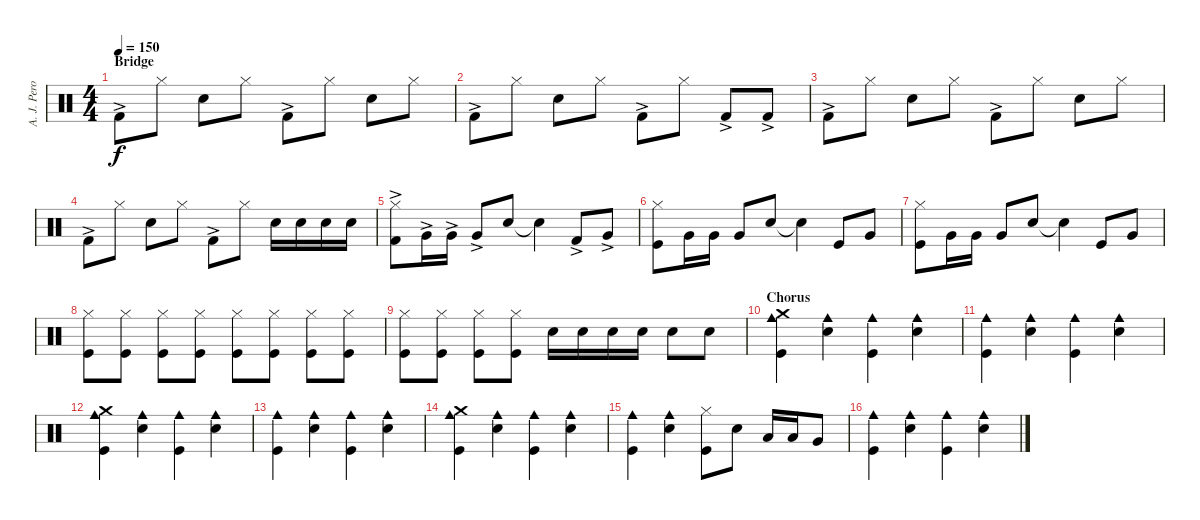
\track ("A. J. Pero - Drums" "A. J. Pero") {instrument percussion}
\staff {score}
\articulation defaults
\ts (4 4)
\section ("" "Bridge")
\tempo 150
\clef neutral
\ks c "Kick (hit) 2"{ac}.8{dy f} "Hi-Hat (closed)".8 "Electric Snare (hit)".8 "Hi-Hat (closed)".8 "Kick (hit) 2"{ac}.8 "Hi-Hat (closed)".8 "Electric Snare (hit)".8 "Hi-Hat (closed)".8
|
"Kick (hit) 2"{ac}.8 "Hi-Hat (closed)".8 "Electric Snare (hit)".8 "Hi-Hat (closed)".8 "Kick (hit) 2"{ac}.8 "Hi-Hat (closed)".8 "Kick (hit) 2"{ac}.8 "Kick (hit) 2"{ac}.8 |
"Kick (hit) 2"{ac}.8 "Hi-Hat (closed)".8 "Electric Snare (hit)".8 "Hi-Hat (closed)".8 "Kick (hit) 2"{ac}.8 "Hi-Hat (closed)".8 "Electric Snare (hit)".8 "Hi-Hat (closed)".8 |
"Kick (hit) 2"{ac}.8 "Hi-Hat (closed)".8 "Electric Snare (hit)".8 "Hi-Hat (closed)".8 "Kick (hit) 2"{ac}.8 "Hi-Hat (closed)".8 "Electric Snare (hit)".16 "Electric Snare (hit)".16 "Electric Snare (hit)".16 "Electric Snare (hit)".16 |
("Hi-Hat (closed)" "Kick (hit) 2"{ac}).8 "Very Low Tom (hit)"{ac}.16 "Very Low Tom (hit)"{ac}.16 "Very Low Tom (hit)"{ac}.8 "Electric Snare (hit)".8 "Electric Snare (hit)"{t}.4 "Kick (hit) 2"{ac}.8 "Very Low Tom (hit)"{ac}.8 |
("Hi-Hat (closed)" "Kick (hit)").8 "Very Low Tom (hit)".16 "Very Low Tom (hit)".16 "Very Low Tom (hit)".8 "Snare (hit) 2".8 "Snare (hit) 2"{t}.4 "Kick (hit)".8 "Very Low Tom (hit)".8 |
("Hi-Hat (closed)" "Kick (hit)").8 "Very Low Tom (hit)".16 "Very Low Tom (hit)".16 "Very Low Tom (hit)".8 "Snare (hit) 2".8 "Snare (hit) 2"{t}.4 "Kick (hit)".8 "Very Low Tom (hit)".8 |
("Hi-Hat (closed)" "Kick (hit)").8 ("Hi-Hat (closed)" "Kick (hit)").8 ("Hi-Hat (closed)" "Kick (hit)").8 ("Hi-Hat (closed)" "Kick (hit)").8 ("Hi-Hat (closed)" "Kick (hit)").8 ("Hi-Hat (closed)" "Kick (hit)").8 ("Hi-Hat (closed)" "Kick (hit)").8 ("Hi-Hat (closed)" "Kick (hit)").8 |
("Hi-Hat (closed)" "Kick (hit)").8 ("Hi-Hat (closed)" "Kick (hit)").8 ("Hi-Hat (closed)" "Kick (hit)").8 ("Hi-Hat (closed)" "Kick (hit)").8 "Snare (hit) 2".16 "Snare (hit) 2".16 "Snare (hit) 2".16 "Snare (hit) 2".16 "Snare (hit) 2".8 "Snare (hit) 2".8 |
\section ("" "Chorus")
("Crash medium (hit)" "Cowbell medium (hit)" "Kick (hit)").4 ("Cowbell medium (hit)" "Snare (hit) 2").4 ("Cowbell medium (hit)" "Kick (hit)").4 ("Cowbell medium (hit)" "Snare (hit) 2").4 |
("Cowbell medium (hit)" "Kick (hit)").4 ("Cowbell medium (hit)" "Snare (hit) 2").4 ("Cowbell medium (hit)" "Kick (hit)").4 ("Cowbell medium (hit)" "Snare (hit) 2").4 |
("Crash medium (hit)" "Cowbell medium (hit)" "Kick (hit)").4 ("Cowbell medium (hit)" "Snare (hit) 2").4 ("Cowbell medium (hit)" "Kick (hit)").4 ("Cowbell medium (hit)" "Snare (hit) 2").4 |
("Cowbell medium (hit)" "Kick (hit)").4 ("Cowbell medium (hit)" "Snare (hit) 2").4 ("Cowbell medium (hit)" "Kick (hit)").4 ("Cowbell medium (hit)" "Snare (hit) 2").4 |
("Crash medium (hit)" "Cowbell medium (hit)" "Kick (hit)").4 ("Cowbell medium (hit)" "Snare (hit) 2").4 ("Cowbell medium (hit)" "Kick (hit)").4 ("Cowbell medium (hit)" "Snare (hit) 2").4 |
("Cowbell medium (hit)" "Kick (hit)").4 ("Cowbell medium (hit)" "Snare (hit) 2").4 ("Hi-Hat (closed)" "Kick (hit)").8 "Snare (hit) 2".8 "Low Floor Tom (hit)".16 "Low Floor Tom (hit)".16 "Very Low Tom (hit)".8 |
("Cowbell medium (hit)" "Kick (hit)").4 ("Cowbell medium (hit)" "Snare (hit) 2").4 ("Cowbell medium (hit)" "Kick (hit)").4 ("Cowbell medium (hit)" "Snare (hit) 2").4
